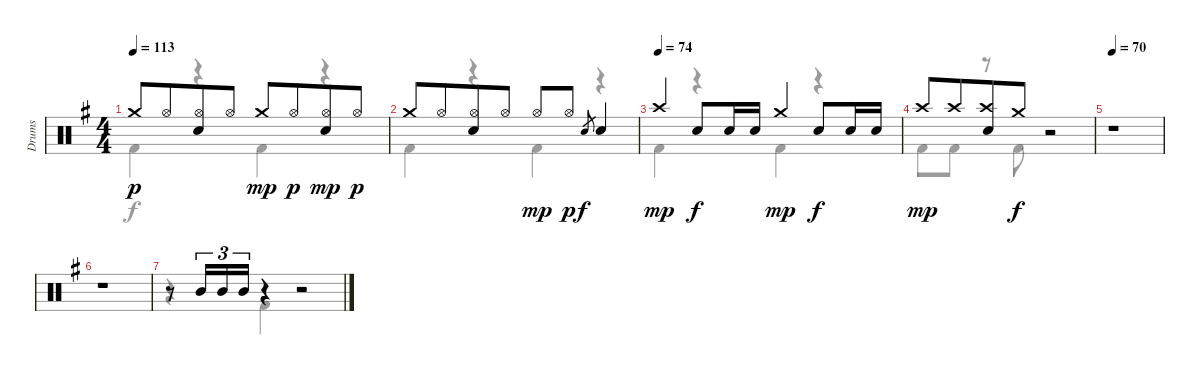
\track ("Drums" "Drums") {instrument percussion}
\staff {score}
\articulation defaults
\voice
\ts (4 4)
\tempo 113
\clef neutral
\ks g "Crash medium (hit)".8{dy p} "Hi-Hat (open)".8{beam merge}
("Hi-Hat (open)" "Electric Snare (hit)").8 "Hi-Hat (open)".8 "Crash medium (hit)".8{dy mp} "Hi-Hat (open)".8{dy p beam merge} ("Hi-Hat (open)" "Electric Snare (hit)").8{dy mp} "Hi-Hat (open)".8{dy p} |
"Crash medium (hit)".8 "Hi-Hat (open)".8{beam merge} ("Hi-Hat (open)" "Electric Snare (hit)").8 "Hi-Hat (open)".8 "Hi-Hat (open)".8{dy mp} "Hi-Hat (open)".8{dy p} "Electric Snare (hit)".8{gr dy f} "Electric Snare (hit)".4 |
\tempo (74)
"Crash high (hit)".4{dy mp} "Electric Snare (hit)".8{dy f} "Electric Snare (hit)".16 "Electric Snare (hit)".16 "Crash medium (hit)".4{dy mp} "Electric Snare (hit)".8{dy f} "Electric Snare (hit)".16 "Electric Snare (hit)".16 |
"Crash high (hit)".8{dy mp} "Crash high (hit)".8{beam merge} ("Electric Snare (hit)" "Crash high (hit)").8 "Crash medium (hit)".8{dy f} r.2 |
\tempo 70
r.1 |
r.1 |
r.8 "Mid Tom (hit)".16{tu (3 2)} "Mid Tom (hit)".16{tu (3 2)} "Mid Tom (hit)".16{tu (3 2)} r.4 r.2
\voice
\clef neutral
\ottava regular
\simile none
\ks g "Kick (hit) 2".4{dy f}
r.4 "Kick (hit) 2".4 r.4 |
"Kick (hit) 2".4 r.4 "Kick (hit) 2".4 r.4 |
"Kick (hit) 2".4 r.4 "Kick (hit) 2".4 r.4 |
"Kick (hit) 2".8 "Kick (hit) 2".8 r.8 "Kick (hit) 2".8 r.2 |
|
|
r.4 "Kick (hit) 2".4 r.2
